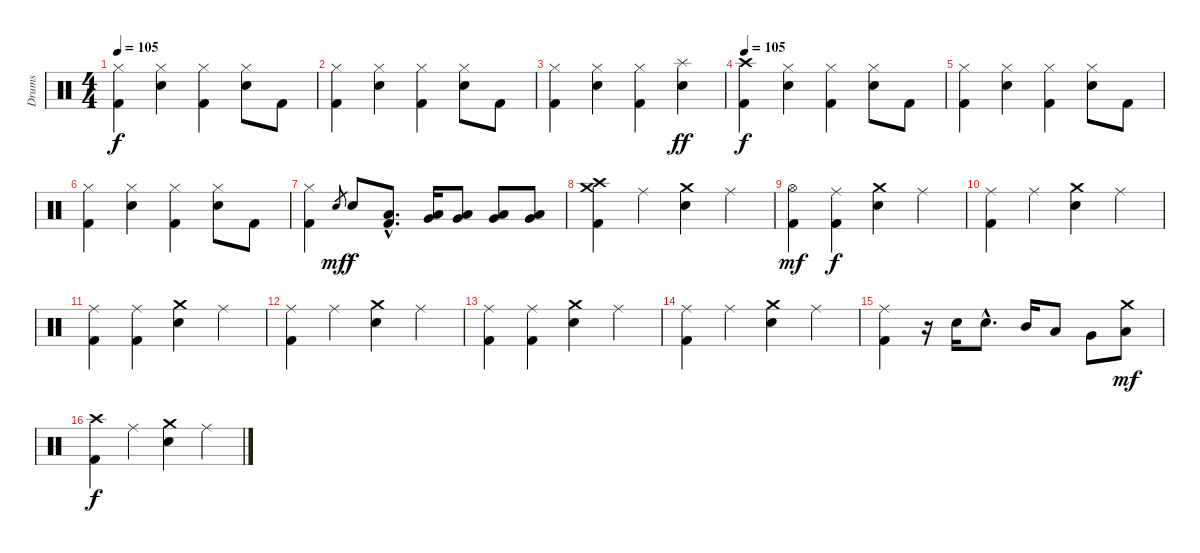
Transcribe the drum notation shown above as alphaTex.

\track ("Drums" "Drums") {instrument percussion}
\staff {score}
\articulation defaults
\ts (4 4)
\tempo 105
\clef neutral
\ks c
("Hi-Hat (closed)" "Kick (hit) 2").4{dy f} ("Hi-Hat (closed)" "Snare (hit) 2").4 ("Hi-Hat (closed)" "Kick (hit) 2").4 ("Hi-Hat (closed)" "Snare (hit) 2").8 "Kick (hit) 2".8 |
("Hi-Hat (closed)" "Kick (hit) 2").4 ("Hi-Hat (closed)" "Snare (hit) 2").4 ("Hi-Hat (closed)" "Kick (hit) 2").4 ("Hi-Hat (closed)" "Snare (hit) 2").8 "Kick (hit) 2".8 |
("Hi-Hat (closed)" "Kick (hit) 2").4 ("Hi-Hat (closed)" "Snare (hit) 2").4 ("Hi-Hat (closed)" "Kick (hit) 2").4 ("Splash (hit)" "Snare (hit) 2").4{dy ff} |
\tempo 105
("Crash high (hit)" "Kick (hit) 2").4{dy f} ("Hi-Hat (closed)" "Snare (hit) 2").4 ("Hi-Hat (closed)" "Kick (hit) 2").4 ("Hi-Hat (closed)" "Snare (hit) 2").8 "Kick (hit) 2".8 |
("Hi-Hat (closed)" "Kick (hit) 2").4 ("Hi-Hat (closed)" "Snare (hit) 2").4 ("Hi-Hat (closed)" "Kick (hit) 2").4 ("Hi-Hat (closed)" "Snare (hit) 2").8 "Kick (hit) 2".8 |
("Hi-Hat (closed)" "Kick (hit) 2").4 ("Hi-Hat (closed)" "Snare (hit) 2").4 ("Hi-Hat (closed)" "Kick (hit) 2").4 ("Hi-Hat (closed)" "Snare (hit) 2").8 "Kick (hit) 2".8 |
("Hi-Hat (closed)" "Kick (hit) 2").4 "Snare (hit) 2".8{gr dy mf} "Snare (hit) 2".8{dy f} ("Low Floor Tom (hit)"{hac} "Kick (hit) 2"{hac}).8{d} ("Very Low Tom (hit)" "Low Floor Tom (hit)").16 ("Very Low Tom (hit)" "Low Floor Tom (hit)").8 ("Very Low Tom (hit)" "Low Floor Tom (hit)").8 ("Very Low Tom (hit)" "Low Floor Tom (hit)").8 |
("Crash high (hit)" "Crash medium (hit)" "Kick (hit) 2").4 "Ride (middle)".4 ("Crash medium (hit)" "Snare (hit) 2").4 "Ride (middle)".4 |
("Hi-Hat (open)" "Kick (hit) 2").4{dy mf} ("Ride (middle)" "Kick (hit) 2").4{dy f} ("Crash medium (hit)" "Snare (hit) 2").4 "Ride (middle)".4 |
("Ride (middle)" "Kick (hit) 2").4 "Ride (middle)".4 ("Crash medium (hit)" "Snare (hit) 2").4 "Ride (middle)".4 |
("Ride (middle)" "Kick (hit) 2").4 ("Ride (middle)" "Kick (hit) 2").4 ("Crash medium (hit)" "Snare (hit) 2").4 "Ride (middle)".4 |
("Ride (middle)" "Kick (hit) 2").4 "Ride (middle)".4 ("Crash medium (hit)" "Snare (hit) 2").4 "Ride (middle)".4 |
("Ride (middle)" "Kick (hit) 2").4 ("Ride (middle)" "Kick (hit) 2").4 ("Crash medium (hit)" "Snare (hit) 2").4 "Ride (middle)".4 |
("Ride (middle)" "Kick (hit) 2").4 "Ride (middle)".4 ("Crash medium (hit)" "Snare (hit) 2").4 "Ride (middle)".4 |
("Ride (middle)" "Kick (hit) 2").4 r.16 "Snare (hit) 2".16 "Snare (hit) 2"{hac}.8{d} "Mid Tom (hit)".16 "Low Tom (hit)".8 "Very Low Tom (hit)".8 ("Crash medium (hit)" "Low Floor Tom (hit)").8{dy mf} |
("Crash high (hit)" "Kick (hit) 2").4{dy f} "Ride (middle)".4 ("Crash medium (hit)" "Snare (hit) 2").4 "Ride (middle)".4
